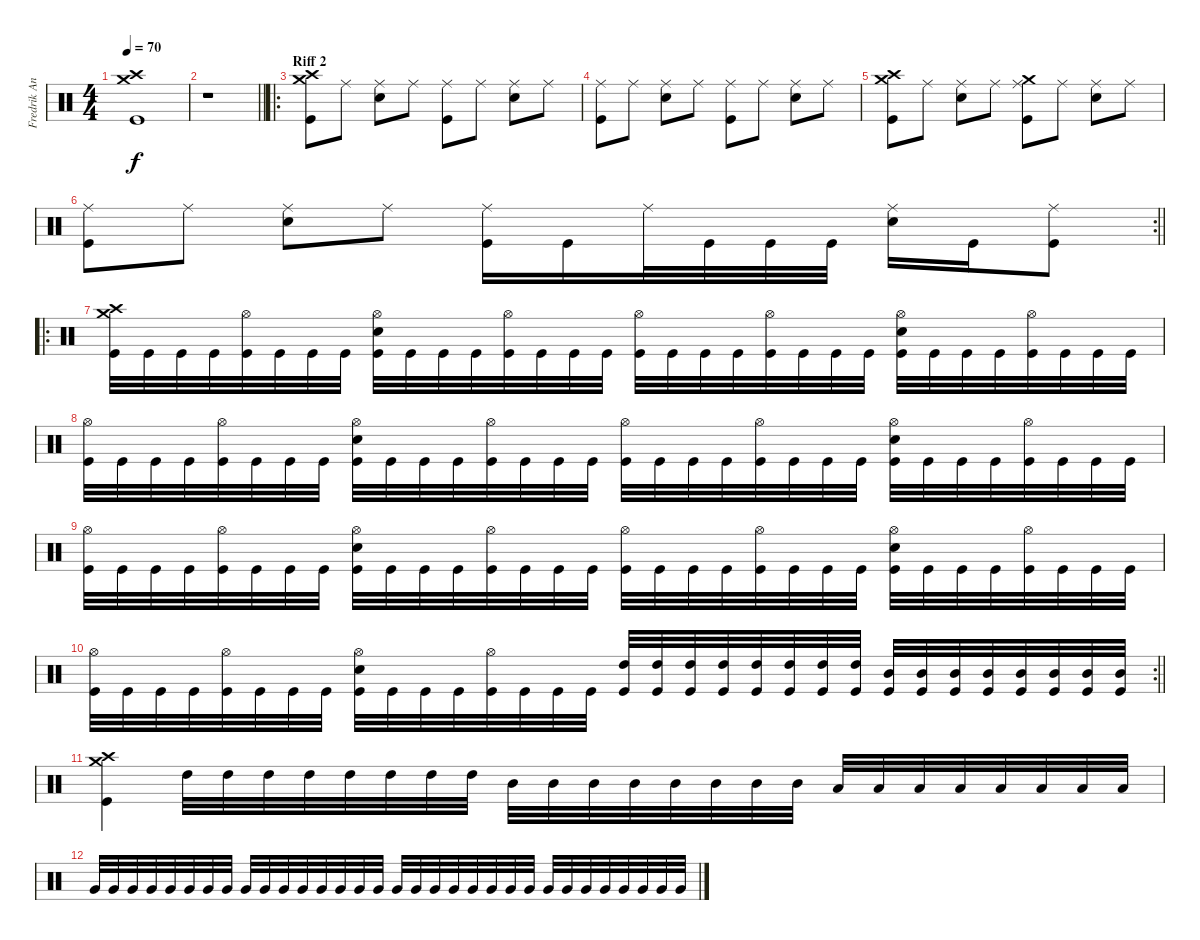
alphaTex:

\track ("Fredrik Andersson" "Fredrik An") {instrument percussion}
\staff {score}
\articulation defaults
\ts (4 4)
\tempo 70
\clef neutral
\ks c
("Crash high (hit)" "Crash medium (hit)" "Kick (hit)").1{dy f} |
\barLineRight lightlight
r.1 |
\ro
\section ("" "Riff 2")
("Crash high (hit)" "Crash medium (hit)" "Kick (hit)").8 "Ride (middle)".8 ("Ride (middle)" "Electric Snare (hit)").8 "Ride (middle)".8 ("Ride (middle)" "Kick (hit)").8 "Ride (middle)".8 ("Ride (middle)" "Electric Snare (hit)").8 "Ride (middle)".8 |
("Ride (middle)" "Kick (hit)").8 "Ride (middle)".8 ("Ride (middle)" "Electric Snare (hit)").8 "Ride (middle)".8 ("Ride (middle)" "Kick (hit)").8 "Ride (middle)".8 ("Ride (middle)" "Electric Snare (hit)").8 "Ride (middle)".8 |
("Crash high (hit)" "Crash medium (hit)" "Kick (hit)").8 "Ride (middle)".8 ("Ride (middle)" "Electric Snare (hit)").8 "Ride (middle)".8 ("Crash medium (hit)" "Ride (middle)" "Kick (hit)").8 "Ride (middle)".8 ("Ride (middle)" "Electric Snare (hit)").8 "Ride (middle)".8 |
\rc 2
\barLineRight lightlight
("Ride (middle)" "Kick (hit)").8 "Ride (middle)".8 ("Ride (middle)" "Electric Snare (hit)").8 "Ride (middle)".8 ("Ride (middle)" "Kick (hit)").16 "Kick (hit)".16 "Ride (middle)".32 "Kick (hit)".32 "Kick (hit)".32 "Kick (hit)".32 ("Ride (middle)" "Electric Snare (hit)").16 "Kick (hit)".16 ("Ride (middle)" "Kick (hit)").8 |
\ro
("Crash medium (hit)" "Crash high (hit)" "Kick (hit)").32 "Kick (hit)".32 "Kick (hit)".32 "Kick (hit)".32 ("Hi-Hat (open)" "Kick (hit)").32 "Kick (hit)".32 "Kick (hit)".32 "Kick (hit)".32 ("Hi-Hat (open)" "Electric Snare (hit)" "Kick (hit)").32 "Kick (hit)".32 "Kick (hit)".32 "Kick (hit)".32 ("Hi-Hat (open)" "Kick (hit)").32 "Kick (hit)".32 "Kick (hit)".32 "Kick (hit)".32 ("Hi-Hat (open)" "Kick (hit)").32 "Kick (hit)".32 "Kick (hit)".32 "Kick (hit)".32 ("Hi-Hat (open)" "Kick (hit)").32 "Kick (hit)".32 "Kick (hit)".32 "Kick (hit)".32 ("Hi-Hat (open)" "Electric Snare (hit)" "Kick (hit)").32 "Kick (hit)".32 "Kick (hit)".32 "Kick (hit)".32 ("Hi-Hat (open)" "Kick (hit)").32 "Kick (hit)".32 "Kick (hit)".32 "Kick (hit)".32 |
("Hi-Hat (open)" "Kick (hit)").32 "Kick (hit)".32 "Kick (hit)".32 "Kick (hit)".32 ("Hi-Hat (open)" "Kick (hit)").32 "Kick (hit)".32 "Kick (hit)".32 "Kick (hit)".32 ("Hi-Hat (open)" "Electric Snare (hit)" "Kick (hit)").32 "Kick (hit)".32 "Kick (hit)".32 "Kick (hit)".32 ("Hi-Hat (open)" "Kick (hit)").32 "Kick (hit)".32 "Kick (hit)".32 "Kick (hit)".32 ("Hi-Hat (open)" "Kick (hit)").32 "Kick (hit)".32 "Kick (hit)".32 "Kick (hit)".32 ("Hi-Hat (open)" "Kick (hit)").32 "Kick (hit)".32 "Kick (hit)".32 "Kick (hit)".32 ("Hi-Hat (open)" "Electric Snare (hit)" "Kick (hit)").32 "Kick (hit)".32 "Kick (hit)".32 "Kick (hit)".32 ("Hi-Hat (open)" "Kick (hit)").32 "Kick (hit)".32 "Kick (hit)".32 "Kick (hit)".32 |
("Hi-Hat (open)" "Kick (hit)").32 "Kick (hit)".32 "Kick (hit)".32 "Kick (hit)".32 ("Hi-Hat (open)" "Kick (hit)").32 "Kick (hit)".32 "Kick (hit)".32 "Kick (hit)".32 ("Hi-Hat (open)" "Electric Snare (hit)" "Kick (hit)").32 "Kick (hit)".32 "Kick (hit)".32 "Kick (hit)".32 ("Hi-Hat (open)" "Kick (hit)").32 "Kick (hit)".32 "Kick (hit)".32 "Kick (hit)".32 ("Hi-Hat (open)" "Kick (hit)").32 "Kick (hit)".32 "Kick (hit)".32 "Kick (hit)".32 ("Hi-Hat (open)" "Kick (hit)").32 "Kick (hit)".32 "Kick (hit)".32 "Kick (hit)".32 ("Hi-Hat (open)" "Electric Snare (hit)" "Kick (hit)").32 "Kick (hit)".32 "Kick (hit)".32 "Kick (hit)".32 ("Hi-Hat (open)" "Kick (hit)").32 "Kick (hit)".32 "Kick (hit)".32 "Kick (hit)".32 |
\rc 2
\barLineRight lightlight
("Hi-Hat (open)" "Kick (hit)").32 "Kick (hit)".32 "Kick (hit)".32 "Kick (hit)".32 ("Hi-Hat (open)" "Kick (hit)").32 "Kick (hit)".32 "Kick (hit)".32 "Kick (hit)".32 ("Hi-Hat (open)" "Electric Snare (hit)" "Kick (hit)").32 "Kick (hit)".32 "Kick (hit)".32 "Kick (hit)".32 ("Hi-Hat (open)" "Kick (hit)").32 "Kick (hit)".32 "Kick (hit)".32 "Kick (hit)".32 ("High Tom (hit)" "Kick (hit)").32 ("High Tom (hit)" "Kick (hit)").32 ("High Tom (hit)" "Kick (hit)").32 ("High Tom (hit)" "Kick (hit)").32 ("High Tom (hit)" "Kick (hit)").32 ("High Tom (hit)" "Kick (hit)").32 ("High Tom (hit)" "Kick (hit)").32 ("High Tom (hit)" "Kick (hit)").32 ("Mid Tom (hit)" "Kick (hit)").32 ("Mid Tom (hit)" "Kick (hit)").32 ("Mid Tom (hit)" "Kick (hit)").32 ("Mid Tom (hit)" "Kick (hit)").32 ("Mid Tom (hit)" "Kick (hit)").32 ("Mid Tom (hit)" "Kick (hit)").32 ("Mid Tom (hit)" "Kick (hit)").32 ("Mid Tom (hit)" "Kick (hit)").32 |
("Crash high (hit)" "Crash medium (hit)" "Kick (hit)").4 "High Tom (hit)".32 "High Tom (hit)".32 "High Tom (hit)".32 "High Tom (hit)".32 "High Tom (hit)".32 "High Tom (hit)".32 "High Tom (hit)".32 "High Tom (hit)".32 "Mid Tom (hit)".32 "Mid Tom (hit)".32 "Mid Tom (hit)".32 "Mid Tom (hit)".32 "Mid Tom (hit)".32 "Mid Tom (hit)".32 "Mid Tom (hit)".32 "Mid Tom (hit)".32 "Low Tom (hit)".32 "Low Tom (hit)".32 "Low Tom (hit)".32 "Low Tom (hit)".32 "Low Tom (hit)".32 "Low Tom (hit)".32 "Low Tom (hit)".32 "Low Tom (hit)".32 |
"Very Low Tom (hit)".32 "Very Low Tom (hit)".32 "Very Low Tom (hit)".32 "Very Low Tom (hit)".32 "Very Low Tom (hit)".32 "Very Low Tom (hit)".32 "Very Low Tom (hit)".32 "Very Low Tom (hit)".32 "Very Low Tom (hit)".32 "Very Low Tom (hit)".32 "Very Low Tom (hit)".32 "Very Low Tom (hit)".32 "Very Low Tom (hit)".32 "Very Low Tom (hit)".32 "Very Low Tom (hit)".32 "Very Low Tom (hit)".32 "Very Low Tom (hit)".32 "Very Low Tom (hit)".32 "Very Low Tom (hit)".32 "Very Low Tom (hit)".32 "Very Low Tom (hit)".32 "Very Low Tom (hit)".32 "Very Low Tom (hit)".32 "Very Low Tom (hit)".32 "Very Low Tom (hit)".32 "Very Low Tom (hit)".32 "Very Low Tom (hit)".32 "Very Low Tom (hit)".32 "Very Low Tom (hit)".32 "Very Low Tom (hit)".32 "Very Low Tom (hit)".32 "Very Low Tom (hit)".32
